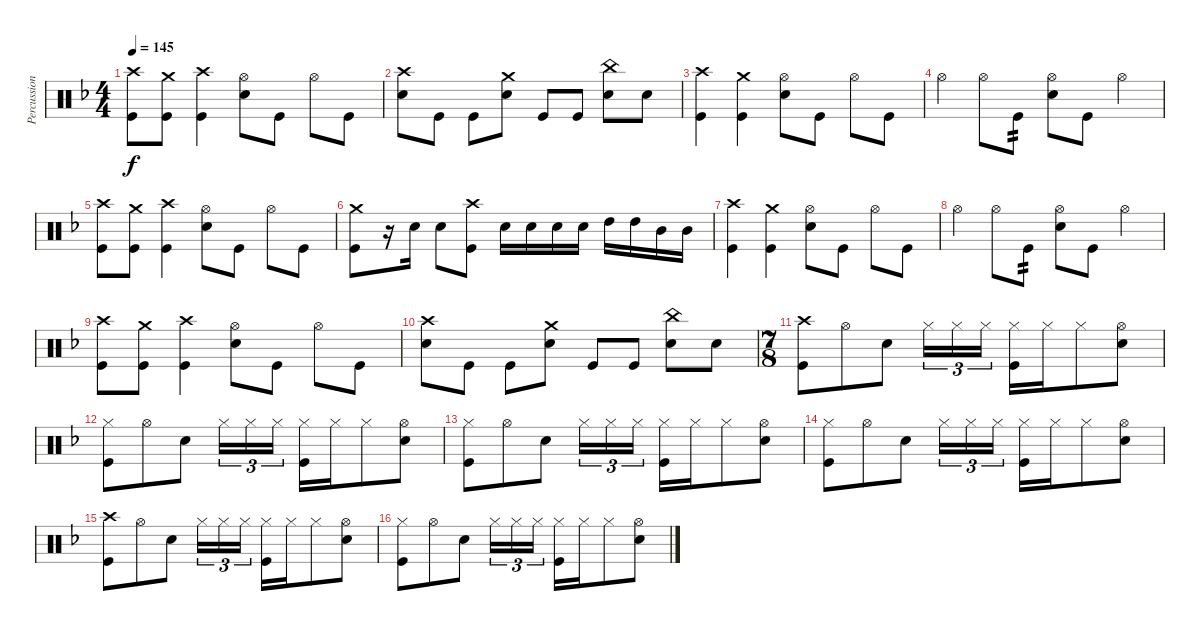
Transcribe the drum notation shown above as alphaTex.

\track ("Percussion" "Percussion") {instrument percussion}
\staff {score}
\articulation defaults
\ts (4 4)
\tempo 145
\clef neutral
\ks f
("Crash high (hit)" "Kick (hit)").8{dy f} ("Crash medium (hit)" "Kick (hit)").8 ("Crash high (hit)" "Kick (hit)").4 ("Hi-Hat (open)" "Electric Snare (hit)").8 "Kick (hit)".8 "Hi-Hat (open)".8 "Kick (hit)".8 |
("Crash high (hit)" "Electric Snare (hit)").8 "Kick (hit)".8 "Kick (hit)".8 ("Crash medium (hit)" "Electric Snare (hit)").8 "Kick (hit)".8 "Kick (hit)".8 ("China (hit)" "Electric Snare (hit)").8 "Electric Snare (hit)".8 |
("Crash high (hit)" "Kick (hit)").4 ("Crash medium (hit)" "Kick (hit)").4 ("Hi-Hat (open)" "Electric Snare (hit)").8 "Kick (hit)".8 "Hi-Hat (open)".8 "Kick (hit)".8 |
"Hi-Hat (open)".4 "Hi-Hat (open)".8 "Kick (hit)".8{tp 2} ("Hi-Hat (open)" "Electric Snare (hit)").8 "Kick (hit)".8 "Hi-Hat (open)".4 |
("Crash high (hit)" "Kick (hit)").8 ("Crash medium (hit)" "Kick (hit)").8 ("Crash high (hit)" "Kick (hit)").4 ("Hi-Hat (open)" "Electric Snare (hit)").8 "Kick (hit)".8 "Hi-Hat (open)".8 "Kick (hit)".8 |
("Crash medium (hit)" "Kick (hit)").8 r.16 "Electric Snare (hit)".16 "Electric Snare (hit)".8 ("Crash high (hit)" "Kick (hit)").8 "Electric Snare (hit)".16 "Electric Snare (hit)".16 "Electric Snare (hit)".16 "Electric Snare (hit)".16 "High Tom (hit)".16 "High Tom (hit)".16 "Mid Tom (hit)".16 "Mid Tom (hit)".16 |
("Crash high (hit)" "Kick (hit)").4 ("Crash medium (hit)" "Kick (hit)").4 ("Hi-Hat (open)" "Electric Snare (hit)").8 "Kick (hit)".8 "Hi-Hat (open)".8 "Kick (hit)".8 |
"Hi-Hat (open)".4 "Hi-Hat (open)".8 "Kick (hit)".8{tp 2} ("Hi-Hat (open)" "Electric Snare (hit)").8 "Kick (hit)".8 "Hi-Hat (open)".4 |
("Crash high (hit)" "Kick (hit)").8 ("Crash medium (hit)" "Kick (hit)").8 ("Crash high (hit)" "Kick (hit)").4 ("Hi-Hat (open)" "Electric Snare (hit)").8 "Kick (hit)".8 "Hi-Hat (open)".8 "Kick (hit)".8 |
("Crash high (hit)" "Electric Snare (hit)").8 "Kick (hit)".8 "Kick (hit)".8 ("Crash medium (hit)" "Electric Snare (hit)").8 "Kick (hit)".8 "Kick (hit)".8 ("China (hit)" "Electric Snare (hit)").8 "Electric Snare (hit)".8 |
\ts (7 8)
("Crash high (hit)" "Kick (hit)").8 "Hi-Hat (open)".8 "Electric Snare (hit)".8 "Hi-Hat (closed)".16{tu (3 2)} "Hi-Hat (closed)".16{tu (3 2)} "Hi-Hat (closed)".16{tu (3 2)} ("Hi-Hat (closed)" "Kick (hit)").16 "Hi-Hat (closed)".16 "Hi-Hat (closed)".8 ("Hi-Hat (open)" "Electric Snare (hit)").8 |
("Hi-Hat (closed)" "Kick (hit)").8 "Hi-Hat (open)".8 "Electric Snare (hit)".8 "Hi-Hat (closed)".16{tu (3 2)} "Hi-Hat (closed)".16{tu (3 2)} "Hi-Hat (closed)".16{tu (3 2)} ("Hi-Hat (closed)" "Kick (hit)").16 "Hi-Hat (closed)".16 "Hi-Hat (closed)".8 ("Hi-Hat (open)" "Electric Snare (hit)").8 |
("Hi-Hat (closed)" "Kick (hit)").8 "Hi-Hat (open)".8 "Electric Snare (hit)".8 "Hi-Hat (closed)".16{tu (3 2)} "Hi-Hat (closed)".16{tu (3 2)} "Hi-Hat (closed)".16{tu (3 2)} ("Hi-Hat (closed)" "Kick (hit)").16 "Hi-Hat (closed)".16 "Hi-Hat (closed)".8 ("Hi-Hat (open)" "Electric Snare (hit)").8 |
("Hi-Hat (closed)" "Kick (hit)").8 "Hi-Hat (open)".8 "Electric Snare (hit)".8 "Hi-Hat (closed)".16{tu (3 2)} "Hi-Hat (closed)".16{tu (3 2)} "Hi-Hat (closed)".16{tu (3 2)} ("Hi-Hat (closed)" "Kick (hit)").16 "Hi-Hat (closed)".16 "Hi-Hat (closed)".8 ("Hi-Hat (open)" "Electric Snare (hit)").8 |
("Crash high (hit)" "Kick (hit)").8 "Hi-Hat (open)".8 "Electric Snare (hit)".8 "Hi-Hat (closed)".16{tu (3 2)} "Hi-Hat (closed)".16{tu (3 2)} "Hi-Hat (closed)".16{tu (3 2)} ("Hi-Hat (closed)" "Kick (hit)").16 "Hi-Hat (closed)".16 "Hi-Hat (closed)".8 ("Hi-Hat (open)" "Electric Snare (hit)").8 |
("Hi-Hat (closed)" "Kick (hit)").8 "Hi-Hat (open)".8 "Electric Snare (hit)".8 "Hi-Hat (closed)".16{tu (3 2)} "Hi-Hat (closed)".16{tu (3 2)} "Hi-Hat (closed)".16{tu (3 2)} ("Hi-Hat (closed)" "Kick (hit)").16 "Hi-Hat (closed)".16 "Hi-Hat (closed)".8 ("Hi-Hat (open)" "Electric Snare (hit)").8
